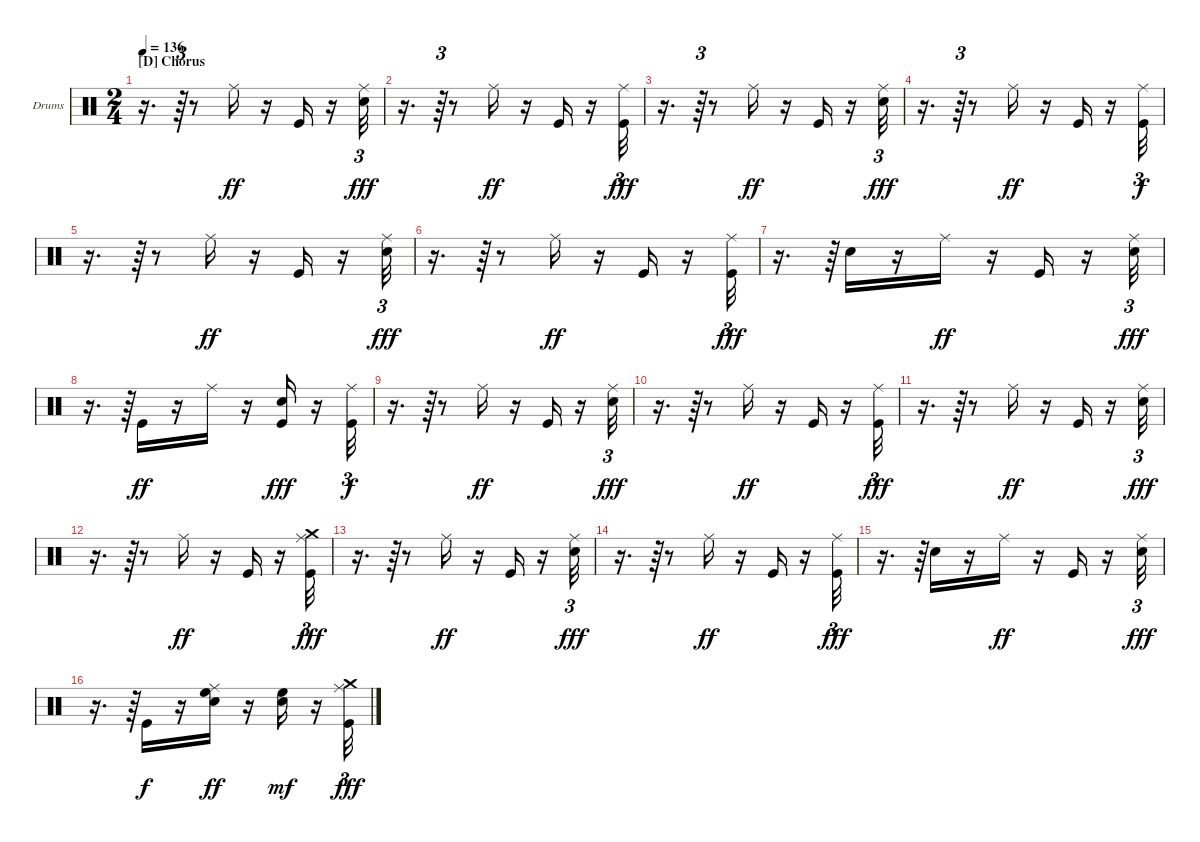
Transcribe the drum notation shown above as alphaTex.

\bracketExtendMode groupsimilarinstruments
\firstSystemTrackNameOrientation horizontal
\otherSystemsTrackNameOrientation horizontal
\track ("Drumkit" "Drums") {solo instrument percussion}
\staff {score}
\articulation defaults
\ts (2 4)
\section ("D" "Chorus")
\tempo 136
\clef neutral
\ks c
r.16{d dy fff} r.64{tu (3 2)} r.8 "Ride (middle)".16{dy ff} r.16 "Kick (hit)".16 r.16 ("Ride (middle)" "Snare (hit) 2").32{tu (3 2) dy fff} |
r.16{d} r.64{tu (3 2)} r.8 "Ride (middle)".16{dy ff} r.16 "Kick (hit)".16 r.16 ("Ride (middle)" "Kick (hit)").32{tu (3 2) dy fff} |
r.16{d} r.64{tu (3 2)} r.8 "Ride (middle)".16{dy ff} r.16 "Kick (hit)".16 r.16 ("Ride (middle)" "Snare (hit) 2").32{tu (3 2) dy fff} |
r.16{d} r.64{tu (3 2)} r.8 "Ride (middle)".16{dy ff} r.16 "Kick (hit)".16 r.16 ("Ride (middle)" "Kick (hit)").32{tu (3 2) dy f} |
r.16{d} r.64{tu (3 2)} r.8 "Ride (middle)".16{dy ff} r.16 "Kick (hit)".16 r.16 ("Ride (middle)" "Snare (hit) 2").32{tu (3 2) dy fff} |
r.16{d} r.64{tu (3 2)} r.8 "Ride (middle)".16{dy ff} r.16 "Kick (hit)".16 r.16 ("Ride (middle)" "Kick (hit)").32{tu (3 2) dy fff} |
r.16{d} r.64{tu (3 2)} "Snare (hit) 2".16 r.16 "Ride (middle)".16{dy ff} r.16 "Kick (hit)".16 r.16 ("Ride (middle)" "Snare (hit) 2").32{tu (3 2) dy fff} |
r.16{d} r.64{tu (3 2)} "Kick (hit)".16{dy ff} r.16 "Ride (middle)".16 r.16 ("Kick (hit)" "Snare (hit) 2").16{dy fff} r.16 ("Ride (middle)" "Kick (hit)").32{tu (3 2) dy f} |
r.16{d} r.64{tu (3 2)} r.8 "Ride (middle)".16{dy ff} r.16 "Kick (hit)".16 r.16 ("Ride (middle)" "Snare (hit) 2").32{tu (3 2) dy fff} |
r.16{d} r.64{tu (3 2)} r.8 "Ride (middle)".16{dy ff} r.16 "Kick (hit)".16 r.16 ("Ride (middle)" "Kick (hit)").32{tu (3 2) dy fff} |
r.16{d} r.64{tu (3 2)} r.8 "Ride (middle)".16{dy ff} r.16 "Kick (hit)".16 r.16 ("Ride (middle)" "Snare (hit) 2").32{tu (3 2) dy fff} |
r.16{d} r.64{tu (3 2)} r.8 "Ride (middle)".16{dy ff} r.16 "Kick (hit)".16 r.16 ("Crash medium (hit)" "Ride (middle)" "Kick (hit)").32{tu (3 2) dy fff} |
r.16{d} r.64{tu (3 2)} r.8 "Ride (middle)".16{dy ff} r.16 "Kick (hit)".16 r.16 ("Ride (middle)" "Snare (hit) 2").32{tu (3 2) dy fff} |
r.16{d} r.64{tu (3 2)} r.8 "Ride (middle)".16{dy ff} r.16 "Kick (hit)".16 r.16 ("Ride (middle)" "Kick (hit)").32{tu (3 2) dy fff} |
r.16{d} r.64{tu (3 2)} "Snare (hit) 2".16 r.16 "Ride (middle)".16{dy ff} r.16 "Kick (hit)".16 r.16 ("Ride (middle)" "Snare (hit) 2").32{tu (3 2) dy fff} |
r.16{d} r.64{tu (3 2)} "Kick (hit)".16{dy f} r.16 ("High Floor Tom (hit)" "Ride (middle)" "Snare (hit) 2").16{dy ff} r.16 ("High Floor Tom (hit)" "Snare (hit) 2").16{dy mf} r.16 ("Crash medium (hit)" "Ride (middle)" "Kick (hit)").32{tu (3 2) dy fff}
